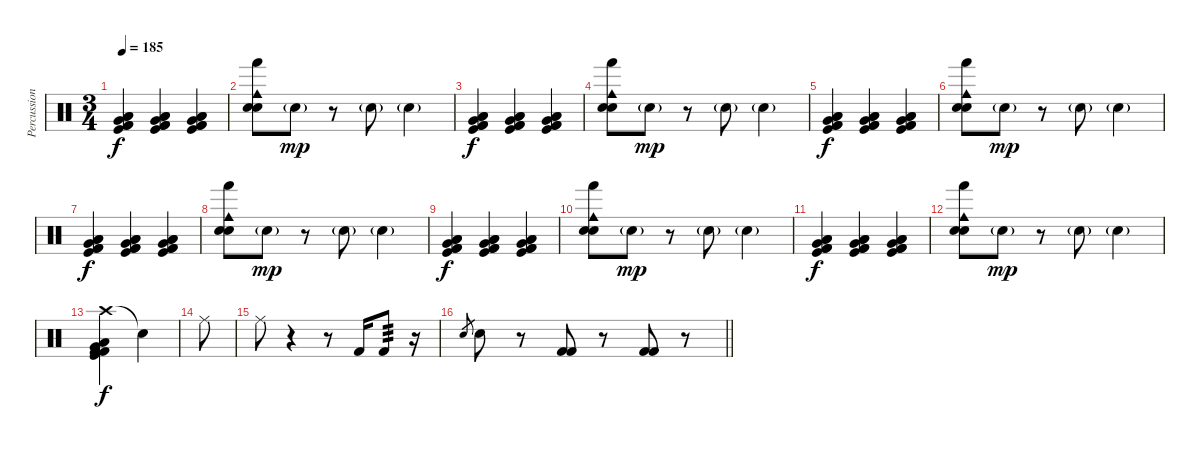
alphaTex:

\track ("Percussions" "Percussion") {instrument percussion}
\staff {score}
\articulation defaults
\ts (3 4)
\tempo 185
\clef neutral
\ks c
("Low Floor Tom (hit)" "Low Floor Tom (hit)" "Kick (hit)" "Kick (hit) 2" "Very Low Tom (hit)" "Kick (hit) 2").4{dy f} ("Low Floor Tom (hit)" "Low Floor Tom (hit)" "Kick (hit)" "Kick (hit) 2" "Very Low Tom (hit)" "Kick (hit) 2").4 ("Low Floor Tom (hit)" "Low Floor Tom (hit)" "Kick (hit)" "Kick (hit) 2" "Very Low Tom (hit)" "Kick (hit) 2").4 |
("Electric Snare (hit)" "Electric Snare (hit)" "Cowbell medium (hit)" "Hand (hit)").8 "Electric Snare (hit)"{g}.8{dy mp} r.8{volume 13} "Electric Snare (hit)"{g}.8{volume 10} "Electric Snare (hit)"{g}.4{volume 5} |
("Low Floor Tom (hit)" "Low Floor Tom (hit)" "Kick (hit)" "Kick (hit) 2" "Very Low Tom (hit)" "Kick (hit) 2").4{dy f volume 16} ("Low Floor Tom (hit)" "Low Floor Tom (hit)" "Kick (hit)" "Kick (hit) 2" "Very Low Tom (hit)" "Kick (hit) 2").4 ("Low Floor Tom (hit)" "Low Floor Tom (hit)" "Kick (hit)" "Kick (hit) 2" "Very Low Tom (hit)" "Kick (hit) 2").4 |
("Electric Snare (hit)" "Electric Snare (hit)" "Cowbell medium (hit)" "Hand (hit)").8 "Electric Snare (hit)"{g}.8{dy mp} r.8{volume 13} "Electric Snare (hit)"{g}.8{volume 10} "Electric Snare (hit)"{g}.4{volume 5} |
("Low Floor Tom (hit)" "Low Floor Tom (hit)" "Kick (hit)" "Kick (hit) 2" "Very Low Tom (hit)" "Kick (hit) 2").4{dy f volume 16} ("Low Floor Tom (hit)" "Low Floor Tom (hit)" "Kick (hit)" "Kick (hit) 2" "Very Low Tom (hit)" "Kick (hit) 2").4 ("Low Floor Tom (hit)" "Low Floor Tom (hit)" "Kick (hit)" "Kick (hit) 2" "Very Low Tom (hit)" "Kick (hit) 2").4 |
("Electric Snare (hit)" "Electric Snare (hit)" "Cowbell medium (hit)" "Hand (hit)").8 "Electric Snare (hit)"{g}.8{dy mp} r.8{volume 13} "Electric Snare (hit)"{g}.8{volume 10} "Electric Snare (hit)"{g}.4{volume 5} |
("Low Floor Tom (hit)" "Low Floor Tom (hit)" "Kick (hit)" "Kick (hit) 2" "Very Low Tom (hit)" "Kick (hit) 2").4{dy f volume 16} ("Low Floor Tom (hit)" "Low Floor Tom (hit)" "Kick (hit)" "Kick (hit) 2" "Very Low Tom (hit)" "Kick (hit) 2").4 ("Low Floor Tom (hit)" "Low Floor Tom (hit)" "Kick (hit)" "Kick (hit) 2" "Very Low Tom (hit)" "Kick (hit) 2").4 |
("Electric Snare (hit)" "Electric Snare (hit)" "Cowbell medium (hit)" "Hand (hit)").8 "Electric Snare (hit)"{g}.8{dy mp} r.8{volume 13} "Electric Snare (hit)"{g}.8{volume 10} "Electric Snare (hit)"{g}.4{volume 5} |
("Low Floor Tom (hit)" "Low Floor Tom (hit)" "Kick (hit)" "Kick (hit) 2" "Very Low Tom (hit)" "Kick (hit) 2").4{dy f volume 16} ("Low Floor Tom (hit)" "Low Floor Tom (hit)" "Kick (hit)" "Kick (hit) 2" "Very Low Tom (hit)" "Kick (hit) 2").4 ("Low Floor Tom (hit)" "Low Floor Tom (hit)" "Kick (hit)" "Kick (hit) 2" "Very Low Tom (hit)" "Kick (hit) 2").4 |
("Electric Snare (hit)" "Electric Snare (hit)" "Cowbell medium (hit)" "Hand (hit)").8 "Electric Snare (hit)"{g}.8{dy mp} r.8{volume 13} "Electric Snare (hit)"{g}.8{volume 10} "Electric Snare (hit)"{g}.4{volume 5} |
("Low Floor Tom (hit)" "Low Floor Tom (hit)" "Kick (hit)" "Kick (hit) 2" "Very Low Tom (hit)" "Kick (hit) 2").4{dy f volume 16} ("Low Floor Tom (hit)" "Low Floor Tom (hit)" "Kick (hit)" "Kick (hit) 2" "Very Low Tom (hit)" "Kick (hit) 2").4 ("Low Floor Tom (hit)" "Low Floor Tom (hit)" "Kick (hit)" "Kick (hit) 2" "Very Low Tom (hit)" "Kick (hit) 2").4 |
("Electric Snare (hit)" "Electric Snare (hit)" "Cowbell medium (hit)" "Hand (hit)").8 "Electric Snare (hit)"{g}.8{dy mp volume 13} r.8 "Electric Snare (hit)"{g}.8{volume 10} "Electric Snare (hit)"{g}.4{volume 5} |
("Crash high (hit)" "Low Floor Tom (hit)" "Kick (hit)" "Kick (hit) 2" "Very Low Tom (hit)" "Kick (hit) 2").4{dy f volume 16} "Snare (hit)"{t}.4 |
"Ride (middle)".8 |
"Ride (middle)".8 r.4 r.8 "Kick (hit) 2".16 "Kick (hit) 2".8{tp 3} r.16 |
\barLineRight lightlight "Electric Snare (hit)".8{gr} "Electric Snare (hit)".8
r.8 ("Kick (hit) 2" "Kick (hit) 2").8 r.8 ("Kick (hit) 2" "Kick (hit) 2").8 r.8
